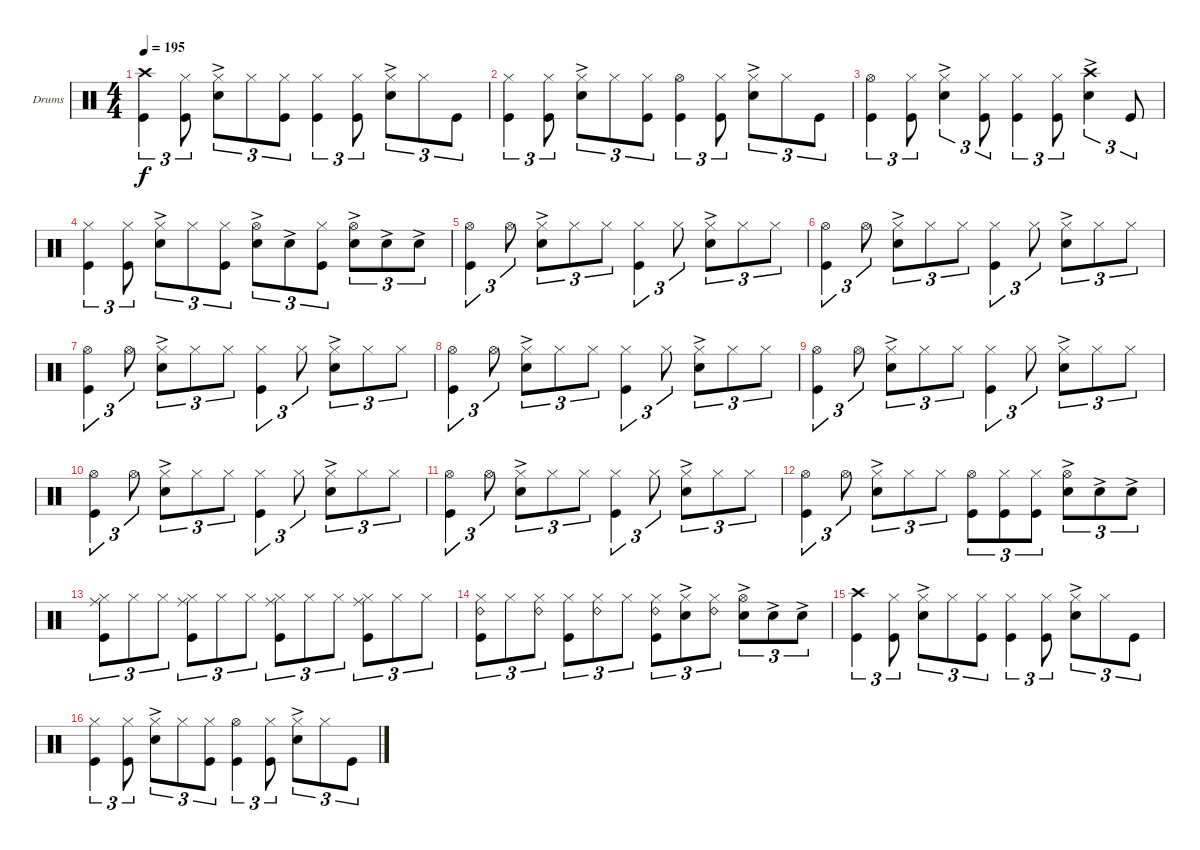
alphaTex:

\defaultSystemsLayout 4
\bracketExtendMode groupsimilarinstruments
\firstSystemTrackNameOrientation horizontal
\otherSystemsTrackNameOrientation horizontal
\track ("Drumkit" "Drums") {instrument percussion}
\staff {score}
\articulation defaults
\ts (4 4)
\tempo 195
\clef neutral
\ks c
("Kick (hit)" "Crash high (hit)").4{tu (3 2) dy f} ("Kick (hit)" "Hi-Hat (closed)").8{tu (3 2)} ("Snare (hit) 2"{ac} "Hi-Hat (closed)").8{tu (3 2)} "Hi-Hat (closed)".8{tu (3 2)} ("Kick (hit)" "Hi-Hat (closed)").8{tu (3 2)} ("Hi-Hat (closed)" "Kick (hit)").4{tu (3 2)} ("Kick (hit)" "Hi-Hat (closed)").8{tu (3 2)} ("Snare (hit) 2"{ac} "Hi-Hat (closed)").8{tu (3 2)} "Hi-Hat (closed)".8{tu (3 2)} "Kick (hit)".8{tu (3 2)} |
("Kick (hit)" "Hi-Hat (closed)").4{tu (3 2)} ("Kick (hit)" "Hi-Hat (closed)").8{tu (3 2)} ("Snare (hit) 2"{ac} "Hi-Hat (closed)").8{tu (3 2)} "Hi-Hat (closed)".8{tu (3 2)} ("Kick (hit)" "Hi-Hat (closed)").8{tu (3 2)} ("Hi-Hat (open)" "Kick (hit)").4{tu (3 2)} ("Kick (hit)" "Hi-Hat (closed)").8{tu (3 2)} ("Snare (hit) 2"{ac} "Hi-Hat (closed)").8{tu (3 2)} "Hi-Hat (closed)".8{tu (3 2)} "Kick (hit)".8{tu (3 2)} |
("Hi-Hat (open)" "Kick (hit)").4{tu (3 2)} ("Kick (hit)" "Hi-Hat (closed)").8{tu (3 2)} ("Snare (hit) 2"{ac} "Hi-Hat (closed)").4{tu (3 2)} ("Kick (hit)" "Hi-Hat (closed)").8{tu (3 2)} ("Hi-Hat (closed)" "Kick (hit)").4{tu (3 2)} ("Kick (hit)" "Hi-Hat (closed)").8{tu (3 2)} ("Snare (hit) 2"{ac} "Crash high (hit)").4{tu (3 2)} "Kick (hit)".8{tu (3 2)} |
("Kick (hit)" "Hi-Hat (closed)").4{tu (3 2)} ("Kick (hit)" "Hi-Hat (closed)").8{tu (3 2)} ("Snare (hit) 2"{ac} "Hi-Hat (closed)").8{tu (3 2)} "Hi-Hat (closed)".8{tu (3 2)} ("Kick (hit)" "Hi-Hat (closed)").8{tu (3 2)} ("Hi-Hat (open)" "Snare (hit) 2"{ac}).8{tu (3 2)} "Snare (hit) 2"{ac}.8{tu (3 2)} ("Kick (hit)" "Hi-Hat (closed)").8{tu (3 2)} ("Snare (hit) 2"{ac} "Hi-Hat (open)").8{tu (3 2)} "Snare (hit) 2"{ac}.8{tu (3 2)} "Snare (hit) 2"{ac}.8{tu (3 2)} |
("Hi-Hat (open)" "Kick (hit)").4{tu (3 2)} "Hi-Hat (open)".8{tu (3 2)} ("Hi-Hat (closed)" "Snare (hit) 2"{ac}).8{tu (3 2)} "Hi-Hat (closed)".8{tu (3 2)} "Hi-Hat (closed)".8{tu (3 2)} ("Hi-Hat (closed)" "Kick (hit)").4{tu (3 2)} "Hi-Hat (closed)".8{tu (3 2)} ("Hi-Hat (closed)" "Snare (hit) 2"{ac}).8{tu (3 2)} "Hi-Hat (closed)".8{tu (3 2)} "Hi-Hat (closed)".8{tu (3 2)} |
("Hi-Hat (open)" "Kick (hit)").4{tu (3 2)} "Hi-Hat (open)".8{tu (3 2)} ("Hi-Hat (closed)" "Snare (hit) 2"{ac}).8{tu (3 2)} "Hi-Hat (closed)".8{tu (3 2)} "Hi-Hat (closed)".8{tu (3 2)} ("Hi-Hat (closed)" "Kick (hit)").4{tu (3 2)} "Hi-Hat (closed)".8{tu (3 2)} ("Hi-Hat (closed)" "Snare (hit) 2"{ac}).8{tu (3 2)} "Hi-Hat (closed)".8{tu (3 2)} "Hi-Hat (closed)".8{tu (3 2)} |
("Hi-Hat (open)" "Kick (hit)").4{tu (3 2)} "Hi-Hat (open)".8{tu (3 2)} ("Hi-Hat (closed)" "Snare (hit) 2"{ac}).8{tu (3 2)} "Hi-Hat (closed)".8{tu (3 2)} "Hi-Hat (closed)".8{tu (3 2)} ("Hi-Hat (closed)" "Kick (hit)").4{tu (3 2)} "Hi-Hat (closed)".8{tu (3 2)} ("Hi-Hat (closed)" "Snare (hit) 2"{ac}).8{tu (3 2)} "Hi-Hat (closed)".8{tu (3 2)} "Hi-Hat (closed)".8{tu (3 2)} |
("Hi-Hat (open)" "Kick (hit)").4{tu (3 2)} "Hi-Hat (open)".8{tu (3 2)} ("Hi-Hat (closed)" "Snare (hit) 2"{ac}).8{tu (3 2)} "Hi-Hat (closed)".8{tu (3 2)} "Hi-Hat (closed)".8{tu (3 2)} ("Hi-Hat (closed)" "Kick (hit)").4{tu (3 2)} "Hi-Hat (closed)".8{tu (3 2)} ("Hi-Hat (closed)" "Snare (hit) 2"{ac}).8{tu (3 2)} "Hi-Hat (closed)".8{tu (3 2)} "Hi-Hat (closed)".8{tu (3 2)} |
("Hi-Hat (open)" "Kick (hit)").4{tu (3 2)} "Hi-Hat (open)".8{tu (3 2)} ("Hi-Hat (closed)" "Snare (hit) 2"{ac}).8{tu (3 2)} "Hi-Hat (closed)".8{tu (3 2)} "Hi-Hat (closed)".8{tu (3 2)} ("Hi-Hat (closed)" "Kick (hit)").4{tu (3 2)} "Hi-Hat (closed)".8{tu (3 2)} ("Hi-Hat (closed)" "Snare (hit) 2"{ac}).8{tu (3 2)} "Hi-Hat (closed)".8{tu (3 2)} "Hi-Hat (closed)".8{tu (3 2)} |
("Hi-Hat (open)" "Kick (hit)").4{tu (3 2)} "Hi-Hat (open)".8{tu (3 2)} ("Hi-Hat (closed)" "Snare (hit) 2"{ac}).8{tu (3 2)} "Hi-Hat (closed)".8{tu (3 2)} "Hi-Hat (closed)".8{tu (3 2)} ("Hi-Hat (closed)" "Kick (hit)").4{tu (3 2)} "Hi-Hat (closed)".8{tu (3 2)} ("Hi-Hat (closed)" "Snare (hit) 2"{ac}).8{tu (3 2)} "Hi-Hat (closed)".8{tu (3 2)} "Hi-Hat (closed)".8{tu (3 2)} |
("Hi-Hat (open)" "Kick (hit)").4{tu (3 2)} "Hi-Hat (open)".8{tu (3 2)} ("Hi-Hat (closed)" "Snare (hit) 2"{ac}).8{tu (3 2)} "Hi-Hat (closed)".8{tu (3 2)} "Hi-Hat (closed)".8{tu (3 2)} ("Hi-Hat (closed)" "Kick (hit)").4{tu (3 2)} "Hi-Hat (closed)".8{tu (3 2)} ("Hi-Hat (closed)" "Snare (hit) 2"{ac}).8{tu (3 2)} "Hi-Hat (closed)".8{tu (3 2)} "Hi-Hat (closed)".8{tu (3 2)} |
("Hi-Hat (open)" "Kick (hit)").4{tu (3 2)} "Hi-Hat (open)".8{tu (3 2)} ("Hi-Hat (closed)" "Snare (hit) 2"{ac}).8{tu (3 2)} "Hi-Hat (closed)".8{tu (3 2)} "Hi-Hat (closed)".8{tu (3 2)} ("Hi-Hat (open)" "Kick (hit)").8{tu (3 2)} ("Kick (hit)" "Hi-Hat (closed)").8{tu (3 2)} ("Hi-Hat (closed)" "Kick (hit)").8{tu (3 2)} ("Hi-Hat (open)" "Snare (hit) 2"{ac}).8{tu (3 2)} "Snare (hit) 2"{ac}.8{tu (3 2)} "Snare (hit) 2"{ac}.8{tu (3 2)} |
("Kick (hit)" "Hi-Hat (closed)" "Ride (middle)").8{tu (3 2)} "Hi-Hat (closed)".8{tu (3 2)} "Hi-Hat (closed)".8{tu (3 2)} ("Hi-Hat (closed)" "Ride (middle)" "Kick (hit)").8{tu (3 2)} "Hi-Hat (closed)".8{tu (3 2)} "Hi-Hat (closed)".8{tu (3 2)} ("Hi-Hat (closed)" "Ride (middle)" "Kick (hit)").8{tu (3 2)} "Hi-Hat (closed)".8{tu (3 2)} "Hi-Hat (closed)".8{tu (3 2)} ("Hi-Hat (closed)" "Ride (middle)" "Kick (hit)").8{tu (3 2)} "Hi-Hat (closed)".8{tu (3 2)} "Hi-Hat (closed)".8{tu (3 2)} |
("Hi-Hat (closed)" "Ride (bell) 2" "Kick (hit)").8{tu (3 2)} "Hi-Hat (closed)".8{tu (3 2)} ("Hi-Hat (closed)" "Ride (bell) 2").8{tu (3 2)} ("Hi-Hat (closed)" "Kick (hit)").8{tu (3 2)} ("Hi-Hat (closed)" "Ride (bell) 2").8{tu (3 2)} "Hi-Hat (closed)".8{tu (3 2)} ("Hi-Hat (closed)" "Ride (bell) 2" "Kick (hit)").8{tu (3 2)} ("Hi-Hat (closed)" "Snare (hit) 2"{ac}).8{tu (3 2)} ("Hi-Hat (closed)" "Ride (bell) 2").8{tu (3 2)} ("Hi-Hat (open)" "Snare (hit) 2"{ac}).8{tu (3 2)} "Snare (hit) 2"{ac}.8{tu (3 2)} "Snare (hit) 2"{ac}.8{tu (3 2)} |
("Kick (hit)" "Crash high (hit)").4{tu (3 2)} ("Kick (hit)" "Hi-Hat (closed)").8{tu (3 2)} ("Snare (hit) 2"{ac} "Hi-Hat (closed)").8{tu (3 2)} "Hi-Hat (closed)".8{tu (3 2)} ("Kick (hit)" "Hi-Hat (closed)").8{tu (3 2)} ("Hi-Hat (closed)" "Kick (hit)").4{tu (3 2)} ("Kick (hit)" "Hi-Hat (closed)").8{tu (3 2)} ("Snare (hit) 2"{ac} "Hi-Hat (closed)").8{tu (3 2)} "Hi-Hat (closed)".8{tu (3 2)} "Kick (hit)".8{tu (3 2)} |
("Kick (hit)" "Hi-Hat (closed)").4{tu (3 2)} ("Kick (hit)" "Hi-Hat (closed)").8{tu (3 2)} ("Snare (hit) 2"{ac} "Hi-Hat (closed)").8{tu (3 2)} "Hi-Hat (closed)".8{tu (3 2)} ("Kick (hit)" "Hi-Hat (closed)").8{tu (3 2)} ("Hi-Hat (open)" "Kick (hit)").4{tu (3 2)} ("Kick (hit)" "Hi-Hat (closed)").8{tu (3 2)} ("Snare (hit) 2"{ac} "Hi-Hat (closed)").8{tu (3 2)} "Hi-Hat (closed)".8{tu (3 2)} "Kick (hit)".8{tu (3 2)}
